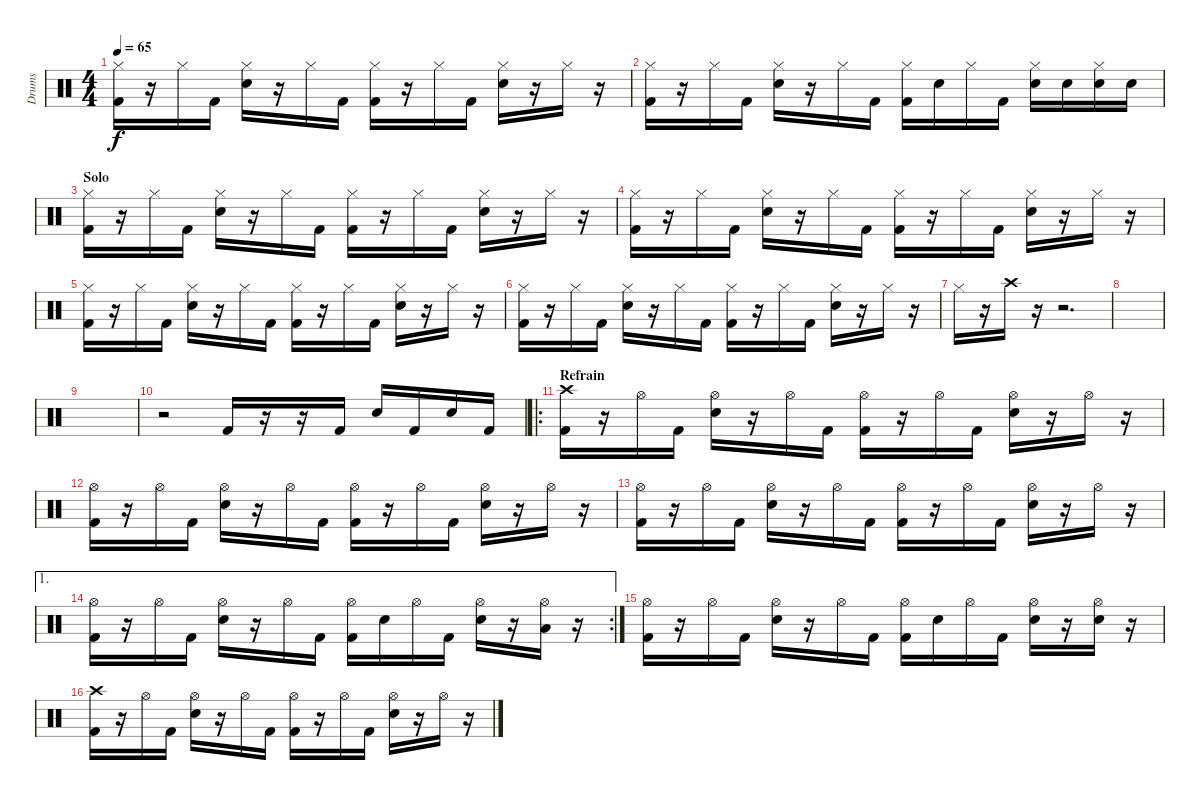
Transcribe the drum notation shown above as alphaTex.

\track ("Drums" "Drums") {instrument percussion}
\staff {score}
\articulation defaults
\ts (4 4)
\tempo 65
\clef neutral
\ks c
("Hi-Hat (closed)" "Kick (hit) 2").16{dy f} r.16 "Hi-Hat (closed)".16 "Kick (hit) 2".16 ("Hi-Hat (closed)" "Snare (hit) 2").16 r.16 "Hi-Hat (closed)".16 "Kick (hit) 2".16 ("Hi-Hat (closed)" "Kick (hit) 2").16 r.16 "Hi-Hat (closed)".16 "Kick (hit) 2".16 ("Hi-Hat (closed)" "Snare (hit) 2").16 r.16 "Hi-Hat (closed)".16 r.16 |
("Hi-Hat (closed)" "Kick (hit) 2").16 r.16 "Hi-Hat (closed)".16 "Kick (hit) 2".16 ("Hi-Hat (closed)" "Snare (hit) 2").16 r.16 "Hi-Hat (closed)".16 "Kick (hit) 2".16 ("Hi-Hat (closed)" "Kick (hit) 2").16 "Snare (hit) 2".16 "Hi-Hat (closed)".16 "Kick (hit) 2".16 ("Hi-Hat (closed)" "Snare (hit) 2").16 "Snare (hit) 2".16 ("Hi-Hat (closed)" "Snare (hit) 2").16 "Snare (hit) 2".16 |
\section ("" "Solo")
("Hi-Hat (closed)" "Kick (hit) 2").16 r.16 "Hi-Hat (closed)".16 "Kick (hit) 2".16 ("Hi-Hat (closed)" "Snare (hit) 2").16 r.16 "Hi-Hat (closed)".16 "Kick (hit) 2".16 ("Hi-Hat (closed)" "Kick (hit) 2").16 r.16 "Hi-Hat (closed)".16 "Kick (hit) 2".16 ("Hi-Hat (closed)" "Snare (hit) 2").16 r.16 "Hi-Hat (closed)".16 r.16 |
("Hi-Hat (closed)" "Kick (hit) 2").16 r.16 "Hi-Hat (closed)".16 "Kick (hit) 2".16 ("Hi-Hat (closed)" "Snare (hit) 2").16 r.16 "Hi-Hat (closed)".16 "Kick (hit) 2".16 ("Hi-Hat (closed)" "Kick (hit) 2").16 r.16 "Hi-Hat (closed)".16 "Kick (hit) 2".16 ("Hi-Hat (closed)" "Snare (hit) 2").16 r.16 "Hi-Hat (closed)".16 r.16 |
("Hi-Hat (closed)" "Kick (hit) 2").16 r.16 "Hi-Hat (closed)".16 "Kick (hit) 2".16 ("Hi-Hat (closed)" "Snare (hit) 2").16 r.16 "Hi-Hat (closed)".16 "Kick (hit) 2".16 ("Hi-Hat (closed)" "Kick (hit) 2").16 r.16 "Hi-Hat (closed)".16 "Kick (hit) 2".16 ("Hi-Hat (closed)" "Snare (hit) 2").16 r.16 "Hi-Hat (closed)".16 r.16 |
("Hi-Hat (closed)" "Kick (hit) 2").16 r.16 "Hi-Hat (closed)".16 "Kick (hit) 2".16 ("Hi-Hat (closed)" "Snare (hit) 2").16 r.16 "Hi-Hat (closed)".16 "Kick (hit) 2".16 ("Hi-Hat (closed)" "Kick (hit) 2").16 r.16 "Hi-Hat (closed)".16 "Kick (hit) 2".16 ("Hi-Hat (closed)" "Snare (hit) 2").16 r.16 "Hi-Hat (closed)".16 r.16 |
"Hi-Hat (closed)".16 r.16 "Crash high (hit)".16 r.16 r.2{d} |
|
|
r.2 "Kick (hit) 2".16 r.16 r.16 "Kick (hit) 2".16 "Snare (hit) 2".16 "Kick (hit) 2".16 "Snare (hit) 2".16 "Kick (hit) 2".16 |
\ro
\section ("" "Refrain")
("Crash high (hit)" "Kick (hit) 2").16 r.16 "Hi-Hat (open)".16 "Kick (hit) 2".16 ("Hi-Hat (open)" "Snare (hit) 2").16 r.16 "Hi-Hat (open)".16 "Kick (hit) 2".16 ("Hi-Hat (open)" "Kick (hit) 2").16 r.16 "Hi-Hat (open)".16 "Kick (hit) 2".16 ("Hi-Hat (open)" "Snare (hit) 2").16 r.16 "Hi-Hat (open)".16 r.16 |
("Hi-Hat (open)" "Kick (hit) 2").16 r.16 "Hi-Hat (open)".16 "Kick (hit) 2".16 ("Hi-Hat (open)" "Snare (hit) 2").16 r.16 "Hi-Hat (open)".16 "Kick (hit) 2".16 ("Hi-Hat (open)" "Kick (hit) 2").16 r.16 "Hi-Hat (open)".16 "Kick (hit) 2".16 ("Hi-Hat (open)" "Snare (hit) 2").16 r.16 "Hi-Hat (open)".16 r.16 |
("Hi-Hat (open)" "Kick (hit) 2").16 r.16 "Hi-Hat (open)".16 "Kick (hit) 2".16 ("Hi-Hat (open)" "Snare (hit) 2").16 r.16 "Hi-Hat (open)".16 "Kick (hit) 2".16 ("Hi-Hat (open)" "Kick (hit) 2").16 r.16 "Hi-Hat (open)".16 "Kick (hit) 2".16 ("Hi-Hat (open)" "Snare (hit) 2").16 r.16 "Hi-Hat (open)".16 r.16 |
\ae 1
\rc 2
("Hi-Hat (open)" "Kick (hit) 2").16 r.16 "Hi-Hat (open)".16 "Kick (hit) 2".16 ("Hi-Hat (open)" "Snare (hit) 2").16 r.16 "Hi-Hat (open)".16 "Kick (hit) 2".16 ("Hi-Hat (open)" "Kick (hit) 2").16 "Snare (hit) 2".16 "Hi-Hat (open)".16 "Kick (hit) 2".16 ("Hi-Hat (open)" "Snare (hit) 2").16 r.16 ("Hi-Hat (open)" "Low Tom (hit)").16 r.16 |
("Hi-Hat (open)" "Kick (hit) 2").16 r.16 "Hi-Hat (open)".16 "Kick (hit) 2".16 ("Hi-Hat (open)" "Snare (hit) 2").16 r.16 "Hi-Hat (open)".16 "Kick (hit) 2".16 ("Hi-Hat (open)" "Kick (hit) 2").16 "Snare (hit) 2".16 "Hi-Hat (open)".16 "Kick (hit) 2".16 ("Hi-Hat (open)" "Snare (hit) 2").16 r.16 ("Hi-Hat (open)" "Snare (hit) 2").16 r.16 |
("Crash high (hit)" "Kick (hit) 2").16 r.16 "Hi-Hat (open)".16 "Kick (hit) 2".16 ("Hi-Hat (open)" "Snare (hit) 2").16 r.16 "Hi-Hat (open)".16 "Kick (hit) 2".16 ("Hi-Hat (open)" "Kick (hit) 2").16 r.16 "Hi-Hat (open)".16 "Kick (hit) 2".16 ("Hi-Hat (open)" "Snare (hit) 2").16 r.16 "Hi-Hat (open)".16 r.16
